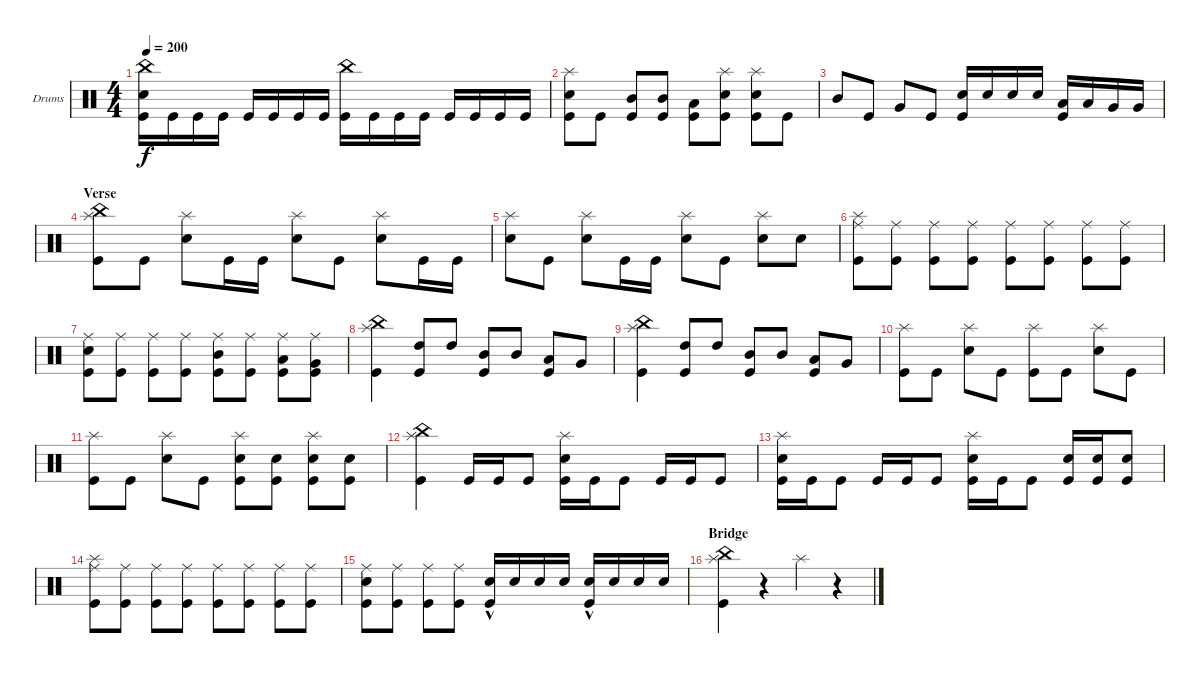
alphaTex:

\defaultSystemsLayout 4
\bracketExtendMode groupsimilarinstruments
\firstSystemTrackNameOrientation horizontal
\otherSystemsTrackNameOrientation horizontal
\track ("Drumkit" "Drums") {instrument percussion}
\staff {score}
\articulation defaults
\ts (4 4)
\tempo 200
\clef neutral
\ks c
("Kick (hit)" "Snare (hit) 2" "China (hit)").16{dy f} "Kick (hit)".16 "Kick (hit)".16 "Kick (hit)".16 "Kick (hit)".16 "Kick (hit)".16 "Kick (hit)".16 "Kick (hit)".16 ("Kick (hit)" "China (hit)").16 "Kick (hit)".16 "Kick (hit)".16 "Kick (hit)".16 "Kick (hit)".16 "Kick (hit)".16 "Kick (hit)".16 "Kick (hit)".16 |
("Kick (hit)" "Snare (hit) 2" "Splash (hit)").8 "Kick (hit)".8 ("Kick (hit)" "Mid Tom (hit)").8 ("Kick (hit)" "Mid Tom (hit)").8 ("Kick (hit)" "Low Tom (hit)").8 ("Kick (hit)" "Snare (hit) 2" "Splash (hit)").8 ("Kick (hit)" "Snare (hit) 2" "Splash (hit)").8 "Kick (hit)".8 |
"Mid Tom (hit)".8 "Kick (hit)".8 "Very Low Tom (hit)".8 "Kick (hit)".8 ("Snare (hit) 2" "Kick (hit)").16 "Snare (hit) 2".16 "Snare (hit) 2".16 "Snare (hit) 2".16 ("Low Tom (hit)" "Kick (hit)").16 "Low Tom (hit)".16 "Very Low Tom (hit)".16 "Very Low Tom (hit)".16 |
\section ("" "Verse")
("Splash (hit)" "China (hit)" "Kick (hit)").8 "Kick (hit)".8 ("Snare (hit) 2" "Splash (hit)").8 "Kick (hit)".16 "Kick (hit)".16 ("Snare (hit) 2" "Splash (hit)").8 "Kick (hit)".8 ("Snare (hit) 2" "Splash (hit)").8 "Kick (hit)".16 "Kick (hit)".16 |
("Snare (hit) 2" "Splash (hit)").8 "Kick (hit)".8 ("Snare (hit) 2" "Splash (hit)").8 "Kick (hit)".16 "Kick (hit)".16 ("Snare (hit) 2" "Splash (hit)").8 "Kick (hit)".8 ("Snare (hit) 2" "Splash (hit)").8 "Snare (hit) 2".8 |
("Ride (middle)" "Kick (hit)" "Splash (hit)").8 ("Ride (middle)" "Kick (hit)").8 ("Ride (middle)" "Kick (hit)").8 ("Ride (middle)" "Kick (hit)").8 ("Ride (middle)" "Kick (hit)").8 ("Ride (middle)" "Kick (hit)").8 ("Ride (middle)" "Kick (hit)").8 ("Ride (middle)" "Kick (hit)").8 |
("Ride (middle)" "Snare (hit) 2" "Kick (hit)").8 ("Ride (middle)" "Kick (hit)").8 ("Ride (middle)" "Kick (hit)").8 ("Ride (middle)" "Kick (hit)").8 ("Ride (middle)" "Kick (hit)" "Mid Tom (hit)").8 ("Ride (middle)" "Kick (hit)").8 ("Ride (middle)" "Kick (hit)" "Low Tom (hit)").8 ("Ride (middle)" "Kick (hit)" "Very Low Tom (hit)").8 |
("Splash (hit)" "China (hit)" "Kick (hit)").4 ("High Tom (hit)" "Kick (hit)").8 "High Tom (hit)".8 ("Mid Tom (hit)" "Kick (hit)").8 "Mid Tom (hit)".8 ("Low Tom (hit)" "Kick (hit)").8 "Very Low Tom (hit)".8 |
("Splash (hit)" "China (hit)" "Kick (hit)").4 ("High Tom (hit)" "Kick (hit)").8 "High Tom (hit)".8 ("Mid Tom (hit)" "Kick (hit)").8 "Mid Tom (hit)".8 ("Low Tom (hit)" "Kick (hit)").8 "Very Low Tom (hit)".8 |
("Kick (hit)" "Splash (hit)").8 "Kick (hit)".8 ("Snare (hit) 2" "Splash (hit)").8 "Kick (hit)".8 ("Kick (hit)" "Splash (hit)").8 "Kick (hit)".8 ("Snare (hit) 2" "Splash (hit)").8 "Kick (hit)".8 |
("Kick (hit)" "Splash (hit)").8 "Kick (hit)".8 ("Snare (hit) 2" "Splash (hit)").8 "Kick (hit)".8 ("Kick (hit)" "Snare (hit) 2" "Splash (hit)").8 ("Kick (hit)" "Snare (hit) 2").8 ("Kick (hit)" "Snare (hit) 2" "Splash (hit)").8 ("Kick (hit)" "Snare (hit) 2").8 |
("Splash (hit)" "China (hit)" "Kick (hit)").4 "Kick (hit)".16 "Kick (hit)".16 "Kick (hit)".8 ("Snare (hit) 2" "Kick (hit)" "Splash (hit)").16 "Kick (hit)".16 "Kick (hit)".8 "Kick (hit)".16 "Kick (hit)".16 "Kick (hit)".8 |
("Snare (hit) 2" "Kick (hit)" "Splash (hit)").16 "Kick (hit)".16 "Kick (hit)".8 "Kick (hit)".16 "Kick (hit)".16 "Kick (hit)".8 ("Snare (hit) 2" "Kick (hit)" "Splash (hit)").16 "Kick (hit)".16 "Kick (hit)".8 ("Kick (hit)" "Snare (hit) 2").16 ("Kick (hit)" "Snare (hit) 2").16 ("Kick (hit)" "Snare (hit) 2").8 |
("Ride (middle)" "Kick (hit)" "Splash (hit)").8 ("Ride (middle)" "Kick (hit)").8 ("Ride (middle)" "Kick (hit)").8 ("Ride (middle)" "Kick (hit)").8 ("Ride (middle)" "Kick (hit)").8 ("Ride (middle)" "Kick (hit)").8 ("Ride (middle)" "Kick (hit)").8 ("Ride (middle)" "Kick (hit)").8 |
("Ride (middle)" "Snare (hit) 2" "Kick (hit)").8 ("Ride (middle)" "Kick (hit)").8 ("Ride (middle)" "Kick (hit)").8 ("Ride (middle)" "Kick (hit)").8 ("Snare (hit) 2"{hac} "Kick (hit)").16 "Snare (hit) 2".16 "Snare (hit) 2".16 "Snare (hit) 2".16 ("Snare (hit) 2"{hac} "Kick (hit)").16 "Snare (hit) 2".16 "Snare (hit) 2".16 "Snare (hit) 2".16 |
\section ("" "Bridge")
("Splash (hit)" "China (hit)" "Kick (hit)").4 r.4 "Splash (hit)".4 r.4
